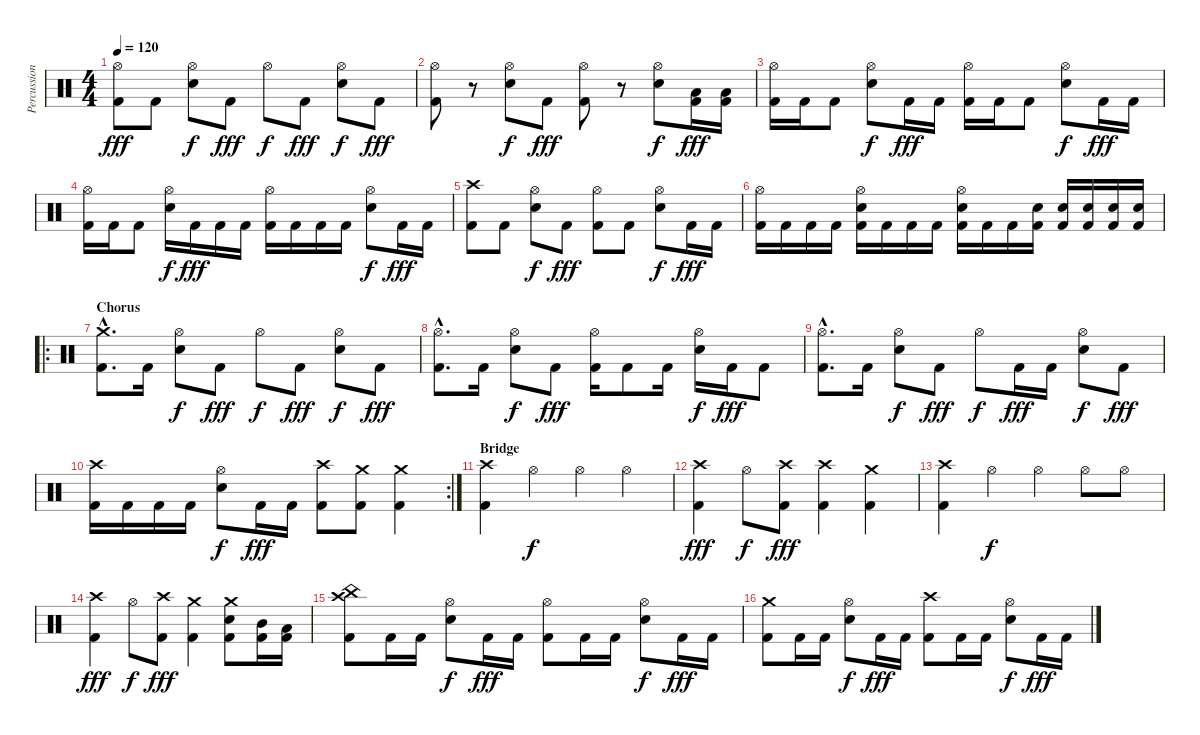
\track ("Percussion" "Percussion") {instrument percussion}
\staff {score}
\articulation defaults
\ts (4 4)
\tempo 120
\clef neutral
\ks c
("Hi-Hat (open)" "Kick (hit) 2").8{dy fff} "Kick (hit) 2".8 ("Hi-Hat (open)" "Snare (hit) 2").8{dy f} "Kick (hit) 2".8{dy fff} "Hi-Hat (open)".8{dy f} "Kick (hit) 2".8{dy fff} ("Hi-Hat (open)" "Snare (hit) 2").8{dy f} "Kick (hit) 2".8{dy fff} |
("Hi-Hat (open)" "Kick (hit) 2").8 r.8 ("Hi-Hat (open)" "Snare (hit) 2").8{dy f} "Kick (hit) 2".8{dy fff} ("Hi-Hat (open)" "Kick (hit) 2").8 r.8 ("Hi-Hat (open)" "Snare (hit) 2").8{dy f} ("Low Tom (hit)" "Kick (hit) 2").16{dy fff} ("Low Tom (hit)" "Kick (hit) 2").16 |
("Hi-Hat (open)" "Kick (hit) 2").16 "Kick (hit) 2".16 "Kick (hit) 2".8 ("Hi-Hat (open)" "Snare (hit) 2").8{dy f} "Kick (hit) 2".16{dy fff} "Kick (hit) 2".16 ("Hi-Hat (open)" "Kick (hit) 2").16 "Kick (hit) 2".16 "Kick (hit) 2".8 ("Hi-Hat (open)" "Snare (hit) 2").8{dy f} "Kick (hit) 2".16{dy fff} "Kick (hit) 2".16 |
("Hi-Hat (open)" "Kick (hit) 2").16 "Kick (hit) 2".16 "Kick (hit) 2".8 ("Hi-Hat (open)" "Snare (hit) 2").16{dy f} "Kick (hit) 2".16{dy fff} "Kick (hit) 2".16 "Kick (hit) 2".16 ("Hi-Hat (open)" "Kick (hit) 2").16 "Kick (hit) 2".16 "Kick (hit) 2".16 "Kick (hit) 2".16 ("Hi-Hat (open)" "Snare (hit) 2").8{dy f} "Kick (hit) 2".16{dy fff} "Kick (hit) 2".16 |
("Crash high (hit)" "Kick (hit) 2").8 "Kick (hit) 2".8 ("Hi-Hat (open)" "Snare (hit) 2").8{dy f} "Kick (hit) 2".8{dy fff} ("Hi-Hat (open)" "Kick (hit) 2").8 "Kick (hit) 2".8 ("Hi-Hat (open)" "Snare (hit) 2").8{dy f} "Kick (hit) 2".16{dy fff} "Kick (hit) 2".16 |
("Hi-Hat (open)" "Kick (hit) 2").16 "Kick (hit) 2".16 "Kick (hit) 2".16 "Kick (hit) 2".16 ("Hi-Hat (open)" "Snare (hit) 2" "Kick (hit) 2").16 "Kick (hit) 2".16 "Kick (hit) 2".16 "Kick (hit) 2".16 ("Hi-Hat (open)" "Snare (hit) 2" "Kick (hit) 2").16 "Kick (hit) 2".16 "Kick (hit) 2".16 ("Snare (hit) 2" "Kick (hit) 2").16 ("Snare (hit) 2" "Kick (hit) 2").16 ("Snare (hit) 2" "Kick (hit) 2").16 ("Snare (hit) 2" "Kick (hit) 2").16 ("Snare (hit) 2" "Kick (hit) 2").16 |
\ro
\section ("" "Chorus")
("Crash medium (hit)"{hac} "Kick (hit) 2"{hac}).8{d} "Kick (hit) 2".16 ("Hi-Hat (open)" "Snare (hit) 2").8{dy f} "Kick (hit) 2".8{dy fff} "Hi-Hat (open)".8{dy f} "Kick (hit) 2".8{dy fff} ("Hi-Hat (open)" "Snare (hit) 2").8{dy f} "Kick (hit) 2".8{dy fff} |
("Hi-Hat (open)"{hac} "Kick (hit) 2"{hac}).8{d} "Kick (hit) 2".16 ("Hi-Hat (open)" "Snare (hit) 2").8{dy f} "Kick (hit) 2".8{dy fff} ("Hi-Hat (open)" "Kick (hit) 2").16 "Kick (hit) 2".8 "Kick (hit) 2".16 ("Hi-Hat (open)" "Snare (hit) 2").16{dy f} "Kick (hit) 2".16{dy fff} "Kick (hit) 2".8 |
("Hi-Hat (open)"{hac} "Kick (hit) 2"{hac}).8{d} "Kick (hit) 2".16 ("Hi-Hat (open)" "Snare (hit) 2").8{dy f} "Kick (hit) 2".8{dy fff} "Hi-Hat (open)".8{dy f} "Kick (hit) 2".16{dy fff} "Kick (hit) 2".16 ("Hi-Hat (open)" "Snare (hit) 2").8{dy f} "Kick (hit) 2".8{dy fff} |
\rc 2
("Crash high (hit)" "Kick (hit) 2").16 "Kick (hit) 2".16 "Kick (hit) 2".16 "Kick (hit) 2".16 ("Hi-Hat (open)" "Snare (hit) 2").8{dy f} "Kick (hit) 2".16{dy fff} "Kick (hit) 2".16 ("Crash high (hit)" "Kick (hit) 2").8 ("Crash medium (hit)" "Kick (hit) 2").8 ("Crash medium (hit)" "Kick (hit) 2").4 |
\section ("" "Bridge")
("Crash high (hit)" "Kick (hit) 2").4 "Hi-Hat (open)".4{dy f} "Hi-Hat (open)".4 "Hi-Hat (open)".4 |
("Crash high (hit)" "Kick (hit) 2").4{dy fff} "Hi-Hat (open)".8{dy f} ("Crash high (hit)" "Kick (hit) 2").8{dy fff} ("Crash high (hit)" "Kick (hit) 2").4 ("Crash medium (hit)" "Kick (hit) 2").4 |
("Crash high (hit)" "Kick (hit) 2").4 "Hi-Hat (open)".4{dy f} "Hi-Hat (open)".4 "Hi-Hat (open)".8 "Hi-Hat (open)".8 |
("Crash high (hit)" "Kick (hit) 2").4{dy fff} "Hi-Hat (open)".8{dy f} ("Crash high (hit)" "Kick (hit) 2").8{dy fff} ("Crash medium (hit)" "Kick (hit) 2").4 ("Crash medium (hit)" "Snare (hit) 2" "Kick (hit) 2").8 ("Mid Tom (hit)" "Kick (hit) 2").16 ("Low Tom (hit)" "Kick (hit) 2").16 |
("Crash high (hit)" "China (hit)" "Kick (hit) 2").8 "Kick (hit) 2".16 "Kick (hit) 2".16 ("Hi-Hat (open)" "Snare (hit) 2").8{dy f} "Kick (hit) 2".16{dy fff} "Kick (hit) 2".16 ("Hi-Hat (open)" "Kick (hit) 2").8 "Kick (hit) 2".16 "Kick (hit) 2".16 ("Hi-Hat (open)" "Snare (hit) 2").8{dy f} "Kick (hit) 2".16{dy fff} "Kick (hit) 2".16 |
("Crash medium (hit)" "Kick (hit) 2").8 "Kick (hit) 2".16 "Kick (hit) 2".16 ("Hi-Hat (open)" "Snare (hit) 2").8{dy f} "Kick (hit) 2".16{dy fff} "Kick (hit) 2".16 ("Crash high (hit)" "Kick (hit) 2").8 "Kick (hit) 2".16 "Kick (hit) 2".16 ("Hi-Hat (open)" "Snare (hit) 2").8{dy f} "Kick (hit) 2".16{dy fff} "Kick (hit) 2".16
